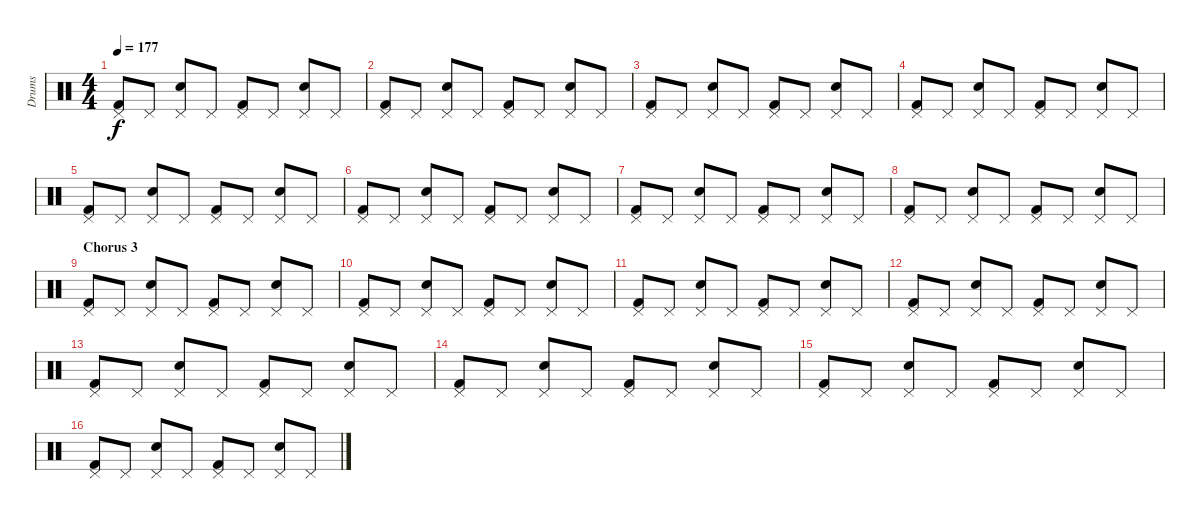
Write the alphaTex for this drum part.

\track ("Drums" "Drums") {instrument percussion}
\staff {score}
\articulation defaults
\ts (4 4)
\tempo 177
\clef neutral
\ks c
("Pedal Hi-Hat (hit)" "Kick (hit) 2").8{dy f} "Pedal Hi-Hat (hit)".8 ("Pedal Hi-Hat (hit)" "Electric Snare (hit)").8 "Pedal Hi-Hat (hit)".8 ("Pedal Hi-Hat (hit)" "Kick (hit) 2").8 "Pedal Hi-Hat (hit)".8 ("Pedal Hi-Hat (hit)" "Electric Snare (hit)").8 "Pedal Hi-Hat (hit)".8 |
("Pedal Hi-Hat (hit)" "Kick (hit) 2").8 "Pedal Hi-Hat (hit)".8 ("Pedal Hi-Hat (hit)" "Electric Snare (hit)").8 "Pedal Hi-Hat (hit)".8 ("Pedal Hi-Hat (hit)" "Kick (hit) 2").8 "Pedal Hi-Hat (hit)".8 ("Pedal Hi-Hat (hit)" "Electric Snare (hit)").8 "Pedal Hi-Hat (hit)".8 |
("Pedal Hi-Hat (hit)" "Kick (hit) 2").8 "Pedal Hi-Hat (hit)".8 ("Pedal Hi-Hat (hit)" "Electric Snare (hit)").8 "Pedal Hi-Hat (hit)".8 ("Pedal Hi-Hat (hit)" "Kick (hit) 2").8 "Pedal Hi-Hat (hit)".8 ("Pedal Hi-Hat (hit)" "Electric Snare (hit)").8 "Pedal Hi-Hat (hit)".8 |
("Pedal Hi-Hat (hit)" "Kick (hit) 2").8 "Pedal Hi-Hat (hit)".8 ("Pedal Hi-Hat (hit)" "Electric Snare (hit)").8 "Pedal Hi-Hat (hit)".8 ("Pedal Hi-Hat (hit)" "Kick (hit) 2").8 "Pedal Hi-Hat (hit)".8 ("Pedal Hi-Hat (hit)" "Electric Snare (hit)").8 "Pedal Hi-Hat (hit)".8 |
("Pedal Hi-Hat (hit)" "Kick (hit) 2").8 "Pedal Hi-Hat (hit)".8 ("Pedal Hi-Hat (hit)" "Electric Snare (hit)").8 "Pedal Hi-Hat (hit)".8 ("Pedal Hi-Hat (hit)" "Kick (hit) 2").8 "Pedal Hi-Hat (hit)".8 ("Pedal Hi-Hat (hit)" "Electric Snare (hit)").8 "Pedal Hi-Hat (hit)".8 |
("Pedal Hi-Hat (hit)" "Kick (hit) 2").8 "Pedal Hi-Hat (hit)".8 ("Pedal Hi-Hat (hit)" "Electric Snare (hit)").8 "Pedal Hi-Hat (hit)".8 ("Pedal Hi-Hat (hit)" "Kick (hit) 2").8 "Pedal Hi-Hat (hit)".8 ("Pedal Hi-Hat (hit)" "Electric Snare (hit)").8 "Pedal Hi-Hat (hit)".8 |
("Pedal Hi-Hat (hit)" "Kick (hit) 2").8 "Pedal Hi-Hat (hit)".8 ("Pedal Hi-Hat (hit)" "Electric Snare (hit)").8 "Pedal Hi-Hat (hit)".8 ("Pedal Hi-Hat (hit)" "Kick (hit) 2").8 "Pedal Hi-Hat (hit)".8 ("Pedal Hi-Hat (hit)" "Electric Snare (hit)").8 "Pedal Hi-Hat (hit)".8 |
("Pedal Hi-Hat (hit)" "Kick (hit) 2").8 "Pedal Hi-Hat (hit)".8 ("Pedal Hi-Hat (hit)" "Electric Snare (hit)").8 "Pedal Hi-Hat (hit)".8 ("Pedal Hi-Hat (hit)" "Kick (hit) 2").8 "Pedal Hi-Hat (hit)".8 ("Pedal Hi-Hat (hit)" "Electric Snare (hit)").8 "Pedal Hi-Hat (hit)".8 |
\section ("" "Chorus 3")
("Pedal Hi-Hat (hit)" "Kick (hit) 2").8 "Pedal Hi-Hat (hit)".8 ("Pedal Hi-Hat (hit)" "Electric Snare (hit)").8 "Pedal Hi-Hat (hit)".8 ("Pedal Hi-Hat (hit)" "Kick (hit) 2").8 "Pedal Hi-Hat (hit)".8 ("Pedal Hi-Hat (hit)" "Electric Snare (hit)").8 "Pedal Hi-Hat (hit)".8 |
("Pedal Hi-Hat (hit)" "Kick (hit) 2").8 "Pedal Hi-Hat (hit)".8 ("Pedal Hi-Hat (hit)" "Electric Snare (hit)").8 "Pedal Hi-Hat (hit)".8 ("Pedal Hi-Hat (hit)" "Kick (hit) 2").8 "Pedal Hi-Hat (hit)".8 ("Pedal Hi-Hat (hit)" "Electric Snare (hit)").8 "Pedal Hi-Hat (hit)".8 |
("Pedal Hi-Hat (hit)" "Kick (hit) 2").8 "Pedal Hi-Hat (hit)".8 ("Pedal Hi-Hat (hit)" "Electric Snare (hit)").8 "Pedal Hi-Hat (hit)".8 ("Pedal Hi-Hat (hit)" "Kick (hit) 2").8 "Pedal Hi-Hat (hit)".8 ("Pedal Hi-Hat (hit)" "Electric Snare (hit)").8 "Pedal Hi-Hat (hit)".8 |
("Pedal Hi-Hat (hit)" "Kick (hit) 2").8 "Pedal Hi-Hat (hit)".8 ("Pedal Hi-Hat (hit)" "Electric Snare (hit)").8 "Pedal Hi-Hat (hit)".8 ("Pedal Hi-Hat (hit)" "Kick (hit) 2").8 "Pedal Hi-Hat (hit)".8 ("Pedal Hi-Hat (hit)" "Electric Snare (hit)").8 "Pedal Hi-Hat (hit)".8 |
("Pedal Hi-Hat (hit)" "Kick (hit) 2").8 "Pedal Hi-Hat (hit)".8 ("Pedal Hi-Hat (hit)" "Electric Snare (hit)").8 "Pedal Hi-Hat (hit)".8 ("Pedal Hi-Hat (hit)" "Kick (hit) 2").8 "Pedal Hi-Hat (hit)".8 ("Pedal Hi-Hat (hit)" "Electric Snare (hit)").8 "Pedal Hi-Hat (hit)".8 |
("Pedal Hi-Hat (hit)" "Kick (hit) 2").8 "Pedal Hi-Hat (hit)".8 ("Pedal Hi-Hat (hit)" "Electric Snare (hit)").8 "Pedal Hi-Hat (hit)".8 ("Pedal Hi-Hat (hit)" "Kick (hit) 2").8 "Pedal Hi-Hat (hit)".8 ("Pedal Hi-Hat (hit)" "Electric Snare (hit)").8 "Pedal Hi-Hat (hit)".8 |
("Pedal Hi-Hat (hit)" "Kick (hit) 2").8 "Pedal Hi-Hat (hit)".8 ("Pedal Hi-Hat (hit)" "Electric Snare (hit)").8 "Pedal Hi-Hat (hit)".8 ("Pedal Hi-Hat (hit)" "Kick (hit) 2").8 "Pedal Hi-Hat (hit)".8 ("Pedal Hi-Hat (hit)" "Electric Snare (hit)").8 "Pedal Hi-Hat (hit)".8 |
("Pedal Hi-Hat (hit)" "Kick (hit) 2").8 "Pedal Hi-Hat (hit)".8 ("Pedal Hi-Hat (hit)" "Electric Snare (hit)").8 "Pedal Hi-Hat (hit)".8 ("Pedal Hi-Hat (hit)" "Kick (hit) 2").8 "Pedal Hi-Hat (hit)".8 ("Pedal Hi-Hat (hit)" "Electric Snare (hit)").8 "Pedal Hi-Hat (hit)".8
